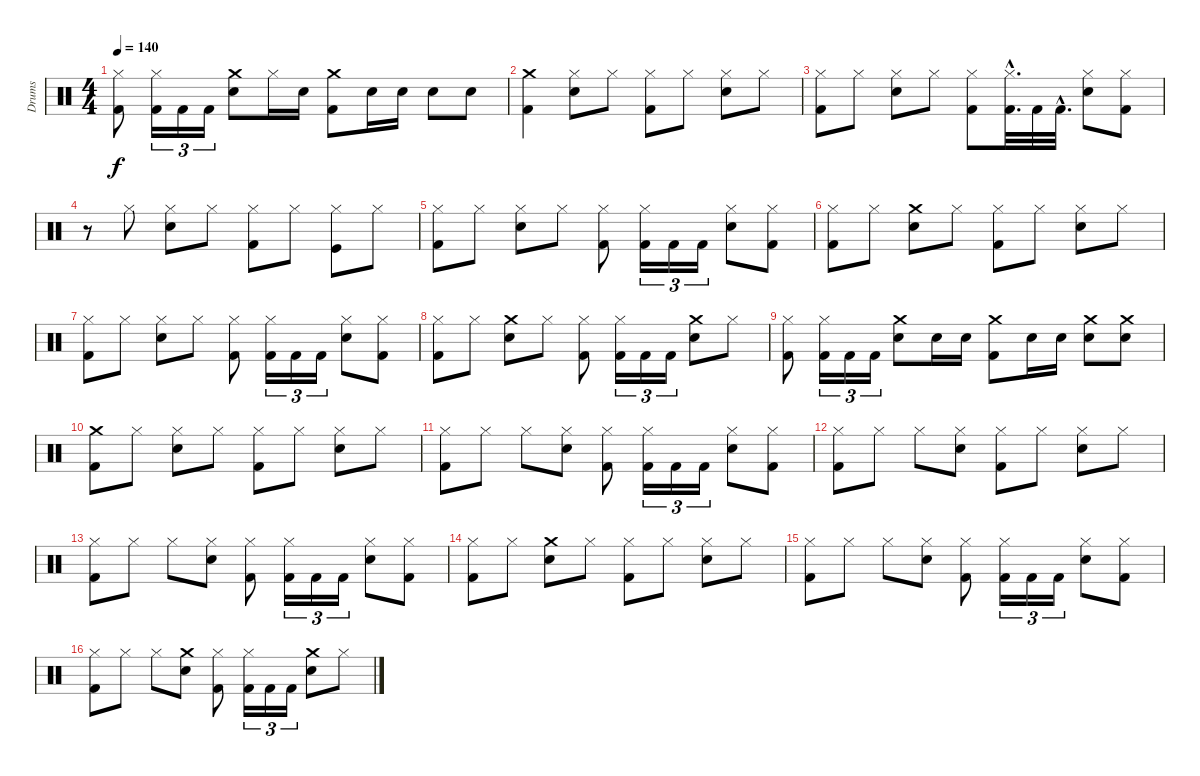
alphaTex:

\track ("Drums" "Drums") {instrument percussion}
\staff {score}
\articulation defaults
\ts (4 4)
\tempo 140
\clef neutral
\ks c
("Hi-Hat (closed)" "Kick (hit) 2").8{dy f} ("Hi-Hat (closed)" "Kick (hit) 2").16{tu (3 2)} "Kick (hit) 2".16{tu (3 2)} "Kick (hit) 2".16{tu (3 2)} ("Snare (hit) 2" "Crash medium (hit)").8 "Hi-Hat (closed)".16 "Snare (hit) 2".16 ("Kick (hit) 2" "Crash medium (hit)").8 "Snare (hit) 2".16 "Snare (hit) 2".16 "Snare (hit) 2".8 "Snare (hit) 2".8 |
("Kick (hit) 2" "Crash medium (hit)").4 ("Snare (hit) 2" "Hi-Hat (closed)").8 "Hi-Hat (closed)".8 ("Hi-Hat (closed)" "Kick (hit) 2").8 "Hi-Hat (closed)".8 ("Snare (hit) 2" "Hi-Hat (closed)").8 "Hi-Hat (closed)".8 |
("Hi-Hat (closed)" "Kick (hit) 2").8 "Hi-Hat (closed)".8 ("Snare (hit) 2" "Hi-Hat (closed)").8 "Hi-Hat (closed)".8 ("Kick (hit) 2" "Hi-Hat (closed)").8 ("Kick (hit) 2"{hac} "Hi-Hat (closed)"{hac}).32{d} "Kick (hit) 2".32 "Kick (hit) 2"{hac}.32{d} ("Snare (hit) 2" "Hi-Hat (closed)").8 ("Kick (hit) 2" "Hi-Hat (closed)").8 |
r.8 "Hi-Hat (closed)".8 ("Snare (hit) 2" "Hi-Hat (closed)").8 "Hi-Hat (closed)".8 ("Kick (hit) 2" "Hi-Hat (closed)").8 "Hi-Hat (closed)".8 ("Kick (hit)" "Hi-Hat (closed)").8 "Hi-Hat (closed)".8 |
("Hi-Hat (closed)" "Kick (hit) 2").8 "Hi-Hat (closed)".8 ("Snare (hit) 2" "Hi-Hat (closed)").8 "Hi-Hat (closed)".8 ("Kick (hit) 2" "Hi-Hat (closed)").8 ("Kick (hit) 2" "Hi-Hat (closed)").16{tu (3 2)} "Kick (hit) 2".16{tu (3 2)} "Kick (hit) 2".16{tu (3 2)} ("Snare (hit) 2" "Hi-Hat (closed)").8 ("Kick (hit) 2" "Hi-Hat (closed)").8 |
("Hi-Hat (closed)" "Kick (hit) 2").8 "Hi-Hat (closed)".8 ("Crash medium (hit)" "Snare (hit) 2").8 "Hi-Hat (closed)".8 ("Hi-Hat (closed)" "Kick (hit) 2").8 "Hi-Hat (closed)".8 ("Snare (hit) 2" "Hi-Hat (closed)").8 "Hi-Hat (closed)".8 |
("Hi-Hat (closed)" "Kick (hit) 2").8 "Hi-Hat (closed)".8 ("Snare (hit) 2" "Hi-Hat (closed)").8 "Hi-Hat (closed)".8 ("Kick (hit) 2" "Hi-Hat (closed)").8 ("Kick (hit) 2" "Hi-Hat (closed)").16{tu (3 2)} "Kick (hit) 2".16{tu (3 2)} "Kick (hit) 2".16{tu (3 2)} ("Snare (hit) 2" "Hi-Hat (closed)").8 ("Kick (hit) 2" "Hi-Hat (closed)").8 |
("Kick (hit) 2" "Hi-Hat (closed)").8 "Hi-Hat (closed)".8 ("Snare (hit) 2" "Crash medium (hit)").8 "Hi-Hat (closed)".8 ("Kick (hit) 2" "Hi-Hat (closed)").8 ("Kick (hit) 2" "Hi-Hat (closed)").16{tu (3 2)} "Kick (hit) 2".16{tu (3 2)} "Kick (hit) 2".16{tu (3 2)} ("Crash medium (hit)" "Snare (hit) 2").8 "Hi-Hat (closed)".8 |
("Hi-Hat (closed)" "Kick (hit) 2").8 ("Hi-Hat (closed)" "Kick (hit) 2").16{tu (3 2)} "Kick (hit) 2".16{tu (3 2)} "Kick (hit) 2".16{tu (3 2)} ("Snare (hit) 2" "Crash medium (hit)").8 "Snare (hit) 2".16 "Snare (hit) 2".16 ("Kick (hit) 2" "Crash medium (hit)").8 "Snare (hit) 2".16 "Snare (hit) 2".16 ("Crash medium (hit)" "Snare (hit) 2").8 ("Crash medium (hit)" "Snare (hit) 2").8 |
("Kick (hit) 2" "Crash medium (hit)").8 "Hi-Hat (closed)".8 ("Snare (hit) 2" "Hi-Hat (closed)").8 "Hi-Hat (closed)".8 ("Kick (hit) 2" "Hi-Hat (closed)").8 "Hi-Hat (closed)".8 ("Snare (hit) 2" "Hi-Hat (closed)").8 "Hi-Hat (closed)".8 |
("Kick (hit) 2" "Hi-Hat (closed)").8 "Hi-Hat (closed)".8 "Hi-Hat (closed)".8 ("Snare (hit) 2" "Hi-Hat (closed)").8 ("Kick (hit) 2" "Hi-Hat (closed)").8 ("Kick (hit) 2" "Hi-Hat (closed)").16{tu (3 2)} "Kick (hit) 2".16{tu (3 2)} "Kick (hit) 2".16{tu (3 2)} ("Snare (hit) 2" "Hi-Hat (closed)").8 ("Kick (hit) 2" "Hi-Hat (closed)").8 |
("Hi-Hat (closed)" "Kick (hit) 2").8 "Hi-Hat (closed)".8 "Hi-Hat (closed)".8 ("Snare (hit) 2" "Hi-Hat (closed)").8 ("Hi-Hat (closed)" "Kick (hit) 2").8 "Hi-Hat (closed)".8 ("Snare (hit) 2" "Hi-Hat (closed)").8 "Hi-Hat (closed)".8 |
("Kick (hit) 2" "Hi-Hat (closed)").8 "Hi-Hat (closed)".8 "Hi-Hat (closed)".8 ("Snare (hit) 2" "Hi-Hat (closed)").8 ("Kick (hit) 2" "Hi-Hat (closed)").8 ("Kick (hit) 2" "Hi-Hat (closed)").16{tu (3 2)} "Kick (hit) 2".16{tu (3 2)} "Kick (hit) 2".16{tu (3 2)} ("Snare (hit) 2" "Hi-Hat (closed)").8 ("Kick (hit) 2" "Hi-Hat (closed)").8 |
("Hi-Hat (closed)" "Kick (hit) 2").8 "Hi-Hat (closed)".8 ("Crash medium (hit)" "Snare (hit) 2").8 "Hi-Hat (closed)".8 ("Hi-Hat (closed)" "Kick (hit) 2").8 "Hi-Hat (closed)".8 ("Snare (hit) 2" "Hi-Hat (closed)").8 "Hi-Hat (closed)".8 |
("Kick (hit) 2" "Hi-Hat (closed)").8 "Hi-Hat (closed)".8 "Hi-Hat (closed)".8 ("Snare (hit) 2" "Hi-Hat (closed)").8 ("Kick (hit) 2" "Hi-Hat (closed)").8 ("Kick (hit) 2" "Hi-Hat (closed)").16{tu (3 2)} "Kick (hit) 2".16{tu (3 2)} "Kick (hit) 2".16{tu (3 2)} ("Snare (hit) 2" "Hi-Hat (closed)").8 ("Kick (hit) 2" "Hi-Hat (closed)").8 |
("Kick (hit) 2" "Hi-Hat (closed)").8 "Hi-Hat (closed)".8 "Hi-Hat (closed)".8 ("Crash medium (hit)" "Snare (hit) 2").8 ("Kick (hit) 2" "Hi-Hat (closed)").8 ("Kick (hit) 2" "Hi-Hat (closed)").16{tu (3 2)} "Kick (hit) 2".16{tu (3 2)} "Kick (hit) 2".16{tu (3 2)} ("Crash medium (hit)" "Snare (hit) 2").8 "Hi-Hat (closed)".8
